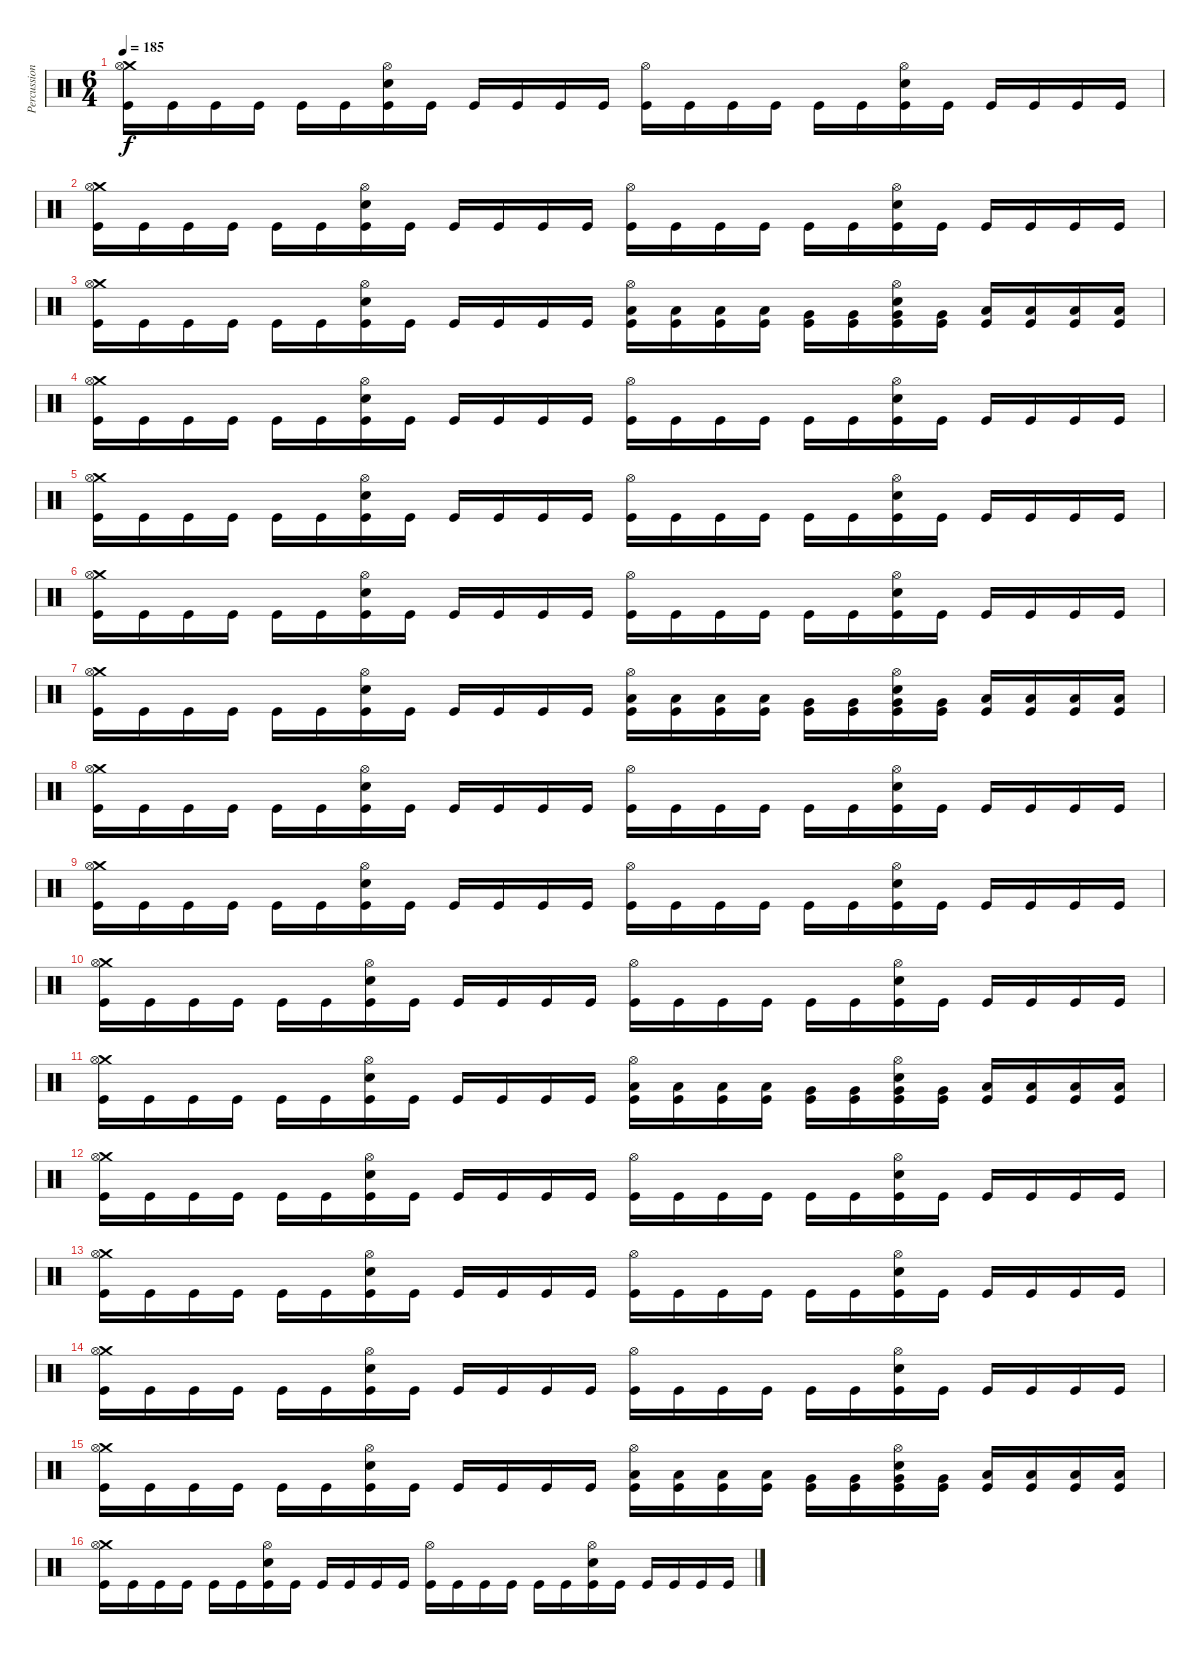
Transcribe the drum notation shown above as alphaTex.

\track ("Percussion" "Percussion") {instrument percussion}
\staff {score}
\articulation defaults
\ts (6 4)
\tempo 185
\clef neutral
\ks c
("Crash medium (hit)" "Hi-Hat (open)" "Kick (hit)").16{dy f} "Kick (hit)".16 "Kick (hit)".16 "Kick (hit)".16 "Kick (hit)".16 "Kick (hit)".16 ("Hi-Hat (open)" "Electric Snare (hit)" "Kick (hit)").16 "Kick (hit)".16 "Kick (hit)".16 "Kick (hit)".16 "Kick (hit)".16 "Kick (hit)".16 ("Hi-Hat (open)" "Kick (hit)").16 "Kick (hit)".16 "Kick (hit)".16 "Kick (hit)".16 "Kick (hit)".16 "Kick (hit)".16 ("Electric Snare (hit)" "Hi-Hat (open)" "Kick (hit)").16 "Kick (hit)".16 "Kick (hit)".16 "Kick (hit)".16 "Kick (hit)".16 "Kick (hit)".16 |
("Crash medium (hit)" "Hi-Hat (open)" "Kick (hit)").16 "Kick (hit)".16 "Kick (hit)".16 "Kick (hit)".16 "Kick (hit)".16 "Kick (hit)".16 ("Hi-Hat (open)" "Electric Snare (hit)" "Kick (hit)").16 "Kick (hit)".16 "Kick (hit)".16 "Kick (hit)".16 "Kick (hit)".16 "Kick (hit)".16 ("Hi-Hat (open)" "Kick (hit)").16 "Kick (hit)".16 "Kick (hit)".16 "Kick (hit)".16 "Kick (hit)".16 "Kick (hit)".16 ("Electric Snare (hit)" "Hi-Hat (open)" "Kick (hit)").16 "Kick (hit)".16 "Kick (hit)".16 "Kick (hit)".16 "Kick (hit)".16 "Kick (hit)".16 |
("Crash medium (hit)" "Hi-Hat (open)" "Kick (hit)").16 "Kick (hit)".16 "Kick (hit)".16 "Kick (hit)".16 "Kick (hit)".16 "Kick (hit)".16 ("Hi-Hat (open)" "Electric Snare (hit)" "Kick (hit)").16 "Kick (hit)".16 "Kick (hit)".16 "Kick (hit)".16 "Kick (hit)".16 "Kick (hit)".16 ("Low Tom (hit)" "Hi-Hat (open)" "Kick (hit)").16 ("Low Tom (hit)" "Kick (hit)").16 ("Low Tom (hit)" "Kick (hit)").16 ("Low Tom (hit)" "Kick (hit)").16 ("Very Low Tom (hit)" "Kick (hit)").16 ("Very Low Tom (hit)" "Kick (hit)").16 ("Very Low Tom (hit)" "Electric Snare (hit)" "Hi-Hat (open)" "Kick (hit)").16 ("Very Low Tom (hit)" "Kick (hit)").16 ("Low Floor Tom (hit)" "Kick (hit)").16 ("Low Floor Tom (hit)" "Kick (hit)").16 ("Low Floor Tom (hit)" "Kick (hit)").16 ("Low Floor Tom (hit)" "Kick (hit)").16 |
("Crash medium (hit)" "Hi-Hat (open)" "Kick (hit)").16 "Kick (hit)".16 "Kick (hit)".16 "Kick (hit)".16 "Kick (hit)".16 "Kick (hit)".16 ("Hi-Hat (open)" "Electric Snare (hit)" "Kick (hit)").16 "Kick (hit)".16 "Kick (hit)".16 "Kick (hit)".16 "Kick (hit)".16 "Kick (hit)".16 ("Hi-Hat (open)" "Kick (hit)").16 "Kick (hit)".16 "Kick (hit)".16 "Kick (hit)".16 "Kick (hit)".16 "Kick (hit)".16 ("Electric Snare (hit)" "Hi-Hat (open)" "Kick (hit)").16 "Kick (hit)".16 "Kick (hit)".16 "Kick (hit)".16 "Kick (hit)".16 "Kick (hit)".16 |
("Crash medium (hit)" "Hi-Hat (open)" "Kick (hit)").16 "Kick (hit)".16 "Kick (hit)".16 "Kick (hit)".16 "Kick (hit)".16 "Kick (hit)".16 ("Hi-Hat (open)" "Electric Snare (hit)" "Kick (hit)").16 "Kick (hit)".16 "Kick (hit)".16 "Kick (hit)".16 "Kick (hit)".16 "Kick (hit)".16 ("Hi-Hat (open)" "Kick (hit)").16 "Kick (hit)".16 "Kick (hit)".16 "Kick (hit)".16 "Kick (hit)".16 "Kick (hit)".16 ("Electric Snare (hit)" "Hi-Hat (open)" "Kick (hit)").16 "Kick (hit)".16 "Kick (hit)".16 "Kick (hit)".16 "Kick (hit)".16 "Kick (hit)".16 |
("Crash medium (hit)" "Hi-Hat (open)" "Kick (hit)").16 "Kick (hit)".16 "Kick (hit)".16 "Kick (hit)".16 "Kick (hit)".16 "Kick (hit)".16 ("Hi-Hat (open)" "Electric Snare (hit)" "Kick (hit)").16 "Kick (hit)".16 "Kick (hit)".16 "Kick (hit)".16 "Kick (hit)".16 "Kick (hit)".16 ("Hi-Hat (open)" "Kick (hit)").16 "Kick (hit)".16 "Kick (hit)".16 "Kick (hit)".16 "Kick (hit)".16 "Kick (hit)".16 ("Electric Snare (hit)" "Hi-Hat (open)" "Kick (hit)").16 "Kick (hit)".16 "Kick (hit)".16 "Kick (hit)".16 "Kick (hit)".16 "Kick (hit)".16 |
("Crash medium (hit)" "Hi-Hat (open)" "Kick (hit)").16 "Kick (hit)".16 "Kick (hit)".16 "Kick (hit)".16 "Kick (hit)".16 "Kick (hit)".16 ("Hi-Hat (open)" "Electric Snare (hit)" "Kick (hit)").16 "Kick (hit)".16 "Kick (hit)".16 "Kick (hit)".16 "Kick (hit)".16 "Kick (hit)".16 ("Low Tom (hit)" "Hi-Hat (open)" "Kick (hit)").16 ("Low Tom (hit)" "Kick (hit)").16 ("Low Tom (hit)" "Kick (hit)").16 ("Low Tom (hit)" "Kick (hit)").16 ("Very Low Tom (hit)" "Kick (hit)").16 ("Very Low Tom (hit)" "Kick (hit)").16 ("Very Low Tom (hit)" "Electric Snare (hit)" "Hi-Hat (open)" "Kick (hit)").16 ("Very Low Tom (hit)" "Kick (hit)").16 ("Low Floor Tom (hit)" "Kick (hit)").16 ("Low Floor Tom (hit)" "Kick (hit)").16 ("Low Floor Tom (hit)" "Kick (hit)").16 ("Low Floor Tom (hit)" "Kick (hit)").16 |
("Crash medium (hit)" "Hi-Hat (open)" "Kick (hit)").16 "Kick (hit)".16 "Kick (hit)".16 "Kick (hit)".16 "Kick (hit)".16 "Kick (hit)".16 ("Hi-Hat (open)" "Electric Snare (hit)" "Kick (hit)").16 "Kick (hit)".16 "Kick (hit)".16 "Kick (hit)".16 "Kick (hit)".16 "Kick (hit)".16 ("Hi-Hat (open)" "Kick (hit)").16 "Kick (hit)".16 "Kick (hit)".16 "Kick (hit)".16 "Kick (hit)".16 "Kick (hit)".16 ("Electric Snare (hit)" "Hi-Hat (open)" "Kick (hit)").16 "Kick (hit)".16 "Kick (hit)".16 "Kick (hit)".16 "Kick (hit)".16 "Kick (hit)".16 |
("Crash medium (hit)" "Hi-Hat (open)" "Kick (hit)").16 "Kick (hit)".16 "Kick (hit)".16 "Kick (hit)".16 "Kick (hit)".16 "Kick (hit)".16 ("Hi-Hat (open)" "Electric Snare (hit)" "Kick (hit)").16 "Kick (hit)".16 "Kick (hit)".16 "Kick (hit)".16 "Kick (hit)".16 "Kick (hit)".16 ("Hi-Hat (open)" "Kick (hit)").16 "Kick (hit)".16 "Kick (hit)".16 "Kick (hit)".16 "Kick (hit)".16 "Kick (hit)".16 ("Electric Snare (hit)" "Hi-Hat (open)" "Kick (hit)").16 "Kick (hit)".16 "Kick (hit)".16 "Kick (hit)".16 "Kick (hit)".16 "Kick (hit)".16 |
("Crash medium (hit)" "Hi-Hat (open)" "Kick (hit)").16 "Kick (hit)".16 "Kick (hit)".16 "Kick (hit)".16 "Kick (hit)".16 "Kick (hit)".16 ("Hi-Hat (open)" "Electric Snare (hit)" "Kick (hit)").16 "Kick (hit)".16 "Kick (hit)".16 "Kick (hit)".16 "Kick (hit)".16 "Kick (hit)".16 ("Hi-Hat (open)" "Kick (hit)").16 "Kick (hit)".16 "Kick (hit)".16 "Kick (hit)".16 "Kick (hit)".16 "Kick (hit)".16 ("Electric Snare (hit)" "Hi-Hat (open)" "Kick (hit)").16 "Kick (hit)".16 "Kick (hit)".16 "Kick (hit)".16 "Kick (hit)".16 "Kick (hit)".16 |
("Crash medium (hit)" "Hi-Hat (open)" "Kick (hit)").16 "Kick (hit)".16 "Kick (hit)".16 "Kick (hit)".16 "Kick (hit)".16 "Kick (hit)".16 ("Hi-Hat (open)" "Electric Snare (hit)" "Kick (hit)").16 "Kick (hit)".16 "Kick (hit)".16 "Kick (hit)".16 "Kick (hit)".16 "Kick (hit)".16 ("Low Tom (hit)" "Hi-Hat (open)" "Kick (hit)").16 ("Low Tom (hit)" "Kick (hit)").16 ("Low Tom (hit)" "Kick (hit)").16 ("Low Tom (hit)" "Kick (hit)").16 ("Very Low Tom (hit)" "Kick (hit)").16 ("Very Low Tom (hit)" "Kick (hit)").16 ("Very Low Tom (hit)" "Electric Snare (hit)" "Hi-Hat (open)" "Kick (hit)").16 ("Very Low Tom (hit)" "Kick (hit)").16 ("Low Floor Tom (hit)" "Kick (hit)").16 ("Low Floor Tom (hit)" "Kick (hit)").16 ("Low Floor Tom (hit)" "Kick (hit)").16 ("Low Floor Tom (hit)" "Kick (hit)").16 |
("Crash medium (hit)" "Hi-Hat (open)" "Kick (hit)").16 "Kick (hit)".16 "Kick (hit)".16 "Kick (hit)".16 "Kick (hit)".16 "Kick (hit)".16 ("Hi-Hat (open)" "Electric Snare (hit)" "Kick (hit)").16 "Kick (hit)".16 "Kick (hit)".16 "Kick (hit)".16 "Kick (hit)".16 "Kick (hit)".16 ("Hi-Hat (open)" "Kick (hit)").16 "Kick (hit)".16 "Kick (hit)".16 "Kick (hit)".16 "Kick (hit)".16 "Kick (hit)".16 ("Electric Snare (hit)" "Hi-Hat (open)" "Kick (hit)").16 "Kick (hit)".16 "Kick (hit)".16 "Kick (hit)".16 "Kick (hit)".16 "Kick (hit)".16 |
("Crash medium (hit)" "Hi-Hat (open)" "Kick (hit)").16 "Kick (hit)".16 "Kick (hit)".16 "Kick (hit)".16 "Kick (hit)".16 "Kick (hit)".16 ("Hi-Hat (open)" "Electric Snare (hit)" "Kick (hit)").16 "Kick (hit)".16 "Kick (hit)".16 "Kick (hit)".16 "Kick (hit)".16 "Kick (hit)".16 ("Hi-Hat (open)" "Kick (hit)").16 "Kick (hit)".16 "Kick (hit)".16 "Kick (hit)".16 "Kick (hit)".16 "Kick (hit)".16 ("Electric Snare (hit)" "Hi-Hat (open)" "Kick (hit)").16 "Kick (hit)".16 "Kick (hit)".16 "Kick (hit)".16 "Kick (hit)".16 "Kick (hit)".16 |
("Crash medium (hit)" "Hi-Hat (open)" "Kick (hit)").16 "Kick (hit)".16 "Kick (hit)".16 "Kick (hit)".16 "Kick (hit)".16 "Kick (hit)".16 ("Hi-Hat (open)" "Electric Snare (hit)" "Kick (hit)").16 "Kick (hit)".16 "Kick (hit)".16 "Kick (hit)".16 "Kick (hit)".16 "Kick (hit)".16 ("Hi-Hat (open)" "Kick (hit)").16 "Kick (hit)".16 "Kick (hit)".16 "Kick (hit)".16 "Kick (hit)".16 "Kick (hit)".16 ("Electric Snare (hit)" "Hi-Hat (open)" "Kick (hit)").16 "Kick (hit)".16 "Kick (hit)".16 "Kick (hit)".16 "Kick (hit)".16 "Kick (hit)".16 |
("Crash medium (hit)" "Hi-Hat (open)" "Kick (hit)").16 "Kick (hit)".16 "Kick (hit)".16 "Kick (hit)".16 "Kick (hit)".16 "Kick (hit)".16 ("Hi-Hat (open)" "Electric Snare (hit)" "Kick (hit)").16 "Kick (hit)".16 "Kick (hit)".16 "Kick (hit)".16 "Kick (hit)".16 "Kick (hit)".16 ("Low Tom (hit)" "Hi-Hat (open)" "Kick (hit)").16 ("Low Tom (hit)" "Kick (hit)").16 ("Low Tom (hit)" "Kick (hit)").16 ("Low Tom (hit)" "Kick (hit)").16 ("Very Low Tom (hit)" "Kick (hit)").16 ("Very Low Tom (hit)" "Kick (hit)").16 ("Very Low Tom (hit)" "Electric Snare (hit)" "Hi-Hat (open)" "Kick (hit)").16 ("Very Low Tom (hit)" "Kick (hit)").16 ("Low Floor Tom (hit)" "Kick (hit)").16 ("Low Floor Tom (hit)" "Kick (hit)").16 ("Low Floor Tom (hit)" "Kick (hit)").16 ("Low Floor Tom (hit)" "Kick (hit)").16 |
("Crash medium (hit)" "Hi-Hat (open)" "Kick (hit)").16 "Kick (hit)".16 "Kick (hit)".16 "Kick (hit)".16 "Kick (hit)".16 "Kick (hit)".16 ("Hi-Hat (open)" "Electric Snare (hit)" "Kick (hit)").16 "Kick (hit)".16 "Kick (hit)".16 "Kick (hit)".16 "Kick (hit)".16 "Kick (hit)".16 ("Hi-Hat (open)" "Kick (hit)").16 "Kick (hit)".16 "Kick (hit)".16 "Kick (hit)".16 "Kick (hit)".16 "Kick (hit)".16 ("Electric Snare (hit)" "Hi-Hat (open)" "Kick (hit)").16 "Kick (hit)".16 "Kick (hit)".16 "Kick (hit)".16 "Kick (hit)".16 "Kick (hit)".16
